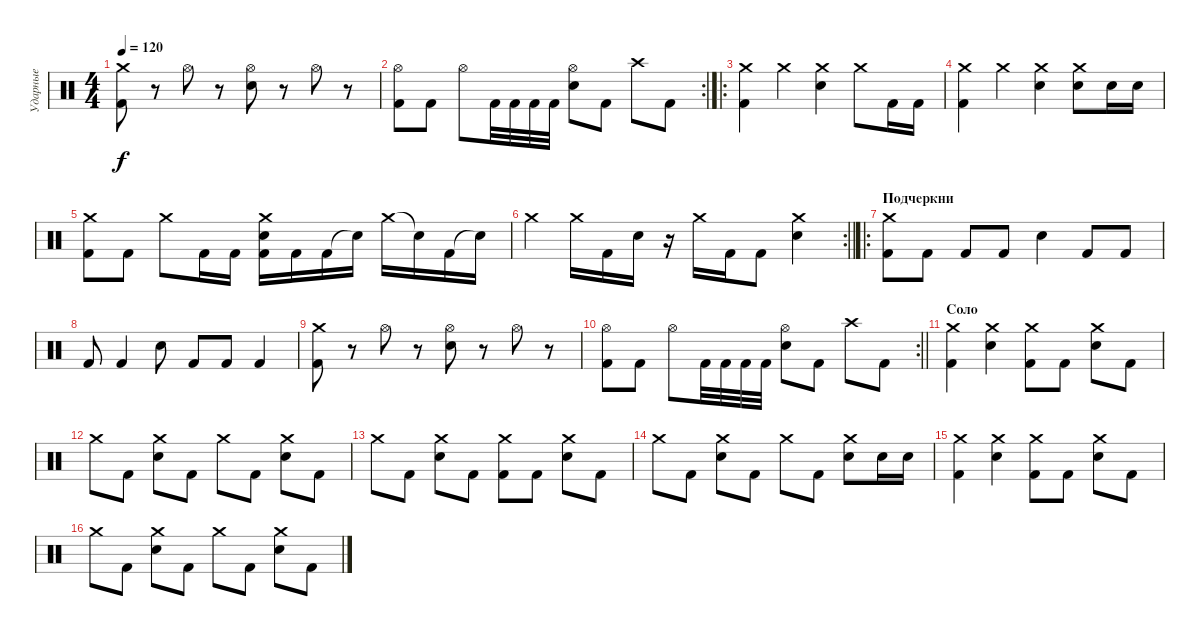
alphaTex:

\track ("Ударные" "Ударные") {instrument percussion}
\staff {score}
\articulation defaults
\ts (4 4)
\tempo 120
\clef neutral
\ks c
("Crash medium (hit)" "Kick (hit) 2").8{dy f} r.8 "Hi-Hat (open)".8 r.8 ("Hi-Hat (open)" "Electric Snare (hit)").8 r.8 "Hi-Hat (open)".8 r.8 |
\rc 2
("Hi-Hat (open)" "Kick (hit) 2").8 "Kick (hit) 2".8 "Hi-Hat (open)".8 "Kick (hit) 2".32 "Kick (hit) 2".32 "Kick (hit) 2".32 "Kick (hit) 2".32 ("Hi-Hat (open)" "Electric Snare (hit)").8 "Kick (hit) 2".8 "Crash high (hit)".8 "Kick (hit) 2".8 |
\ro
("Crash medium (hit)" "Kick (hit) 2").4 "Crash medium (hit)".4 ("Crash medium (hit)" "Electric Snare (hit)").4 "Crash medium (hit)".8 "Kick (hit) 2".16 "Kick (hit) 2".16 |
("Crash medium (hit)" "Kick (hit) 2").4 "Crash medium (hit)".4 ("Crash medium (hit)" "Electric Snare (hit)").4 ("Crash medium (hit)" "Electric Snare (hit)").8 "Electric Snare (hit)".16 "Electric Snare (hit)".16 |
("Crash medium (hit)" "Kick (hit) 2").8 "Kick (hit) 2".8 "Crash medium (hit)".8 "Kick (hit) 2".16 "Kick (hit) 2".16 ("Crash medium (hit)" "Electric Snare (hit)" "Kick (hit) 2").16 "Kick (hit) 2".16 "Kick (hit) 2".16 "Snare (hit)"{t}.16 "Crash medium (hit)".16 "Snare (hit)"{t}.16 "Kick (hit) 2".16 "Snare (hit)"{t}.16 |
\rc 2
\barLineRight lightlight "Crash medium (hit)".4 "Crash medium (hit)".16 "Kick (hit) 2".16 "Electric Snare (hit)".16
r.16 "Crash medium (hit)".16 "Kick (hit) 2".16 "Kick (hit) 2".8 ("Crash medium (hit)" "Electric Snare (hit)").4 |
\ro
\section ("" "Подчеркни")
("Crash medium (hit)" "Kick (hit) 2").8 "Kick (hit) 2".8 "Kick (hit) 2".8 "Kick (hit) 2".8 "Electric Snare (hit)".4 "Kick (hit) 2".8 "Kick (hit) 2".8 |
"Kick (hit) 2".8 "Kick (hit) 2".4 "Electric Snare (hit)".8 "Kick (hit) 2".8 "Kick (hit) 2".8 "Kick (hit) 2".4 |
("Crash medium (hit)" "Kick (hit) 2").8 r.8 "Hi-Hat (open)".8 r.8 ("Hi-Hat (open)" "Electric Snare (hit)").8 r.8 "Hi-Hat (open)".8 r.8 |
\rc 2
\barLineRight lightlight
("Hi-Hat (open)" "Kick (hit) 2").8 "Kick (hit) 2".8 "Hi-Hat (open)".8 "Kick (hit) 2".32 "Kick (hit) 2".32 "Kick (hit) 2".32 "Kick (hit) 2".32 ("Hi-Hat (open)" "Electric Snare (hit)").8 "Kick (hit) 2".8 "Crash high (hit)".8 "Kick (hit) 2".8 |
\section ("" "Соло")
("Crash medium (hit)" "Kick (hit) 2").4 ("Crash medium (hit)" "Electric Snare (hit)").4 ("Crash medium (hit)" "Kick (hit) 2").8 "Kick (hit) 2".8 ("Crash medium (hit)" "Electric Snare (hit)").8 "Kick (hit) 2".8 |
"Crash medium (hit)".8 "Kick (hit) 2".8 ("Crash medium (hit)" "Electric Snare (hit)").8 "Kick (hit) 2".8 "Crash medium (hit)".8 "Kick (hit) 2".8 ("Crash medium (hit)" "Electric Snare (hit)").8 "Kick (hit) 2".8 |
"Crash medium (hit)".8 "Kick (hit) 2".8 ("Crash medium (hit)" "Electric Snare (hit)").8 "Kick (hit) 2".8 ("Crash medium (hit)" "Kick (hit) 2").8 "Kick (hit) 2".8 ("Crash medium (hit)" "Electric Snare (hit)").8 "Kick (hit) 2".8 |
"Crash medium (hit)".8 "Kick (hit) 2".8 ("Crash medium (hit)" "Electric Snare (hit)").8 "Kick (hit) 2".8 "Crash medium (hit)".8 "Kick (hit) 2".8 ("Crash medium (hit)" "Electric Snare (hit)").8 "Electric Snare (hit)".16 "Electric Snare (hit)".16 |
("Crash medium (hit)" "Kick (hit) 2").4 ("Crash medium (hit)" "Electric Snare (hit)").4 ("Crash medium (hit)" "Kick (hit) 2").8 "Kick (hit) 2".8 ("Crash medium (hit)" "Electric Snare (hit)").8 "Kick (hit) 2".8 |
"Crash medium (hit)".8 "Kick (hit) 2".8 ("Crash medium (hit)" "Electric Snare (hit)").8 "Kick (hit) 2".8 "Crash medium (hit)".8 "Kick (hit) 2".8 ("Crash medium (hit)" "Electric Snare (hit)").8 "Kick (hit) 2".8
